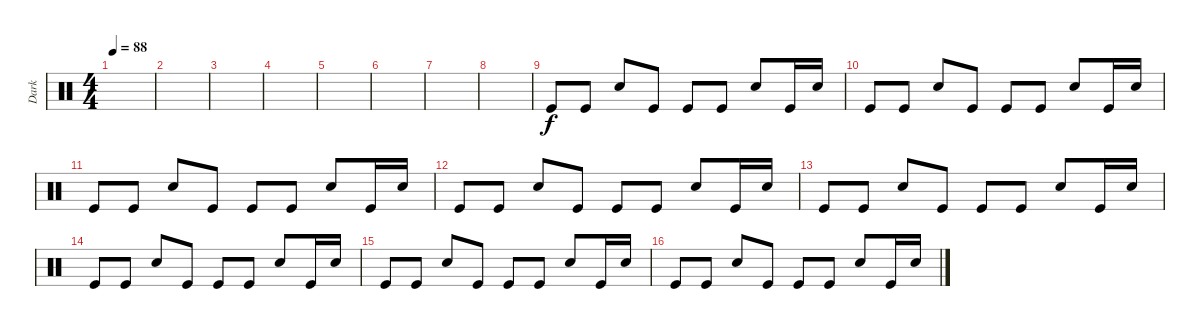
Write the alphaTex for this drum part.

\track ("Dark " "Dark ") {instrument percussion}
\staff {score}
\articulation defaults
\ts (4 4)
\tempo 88
\clef neutral
\ks c
|
|
|
|
|
|
|
|
"Kick (hit)".8 "Kick (hit)".8 "Snare (hit) 2".8 "Kick (hit)".8 "Kick (hit)".8 "Kick (hit)".8 "Snare (hit) 2".8 "Kick (hit)".16 "Snare (hit) 2".16 |
"Kick (hit)".8 "Kick (hit)".8 "Snare (hit) 2".8 "Kick (hit)".8 "Kick (hit)".8 "Kick (hit)".8 "Snare (hit) 2".8 "Kick (hit)".16 "Snare (hit) 2".16 |
"Kick (hit)".8 "Kick (hit)".8 "Snare (hit) 2".8 "Kick (hit)".8 "Kick (hit)".8 "Kick (hit)".8 "Snare (hit) 2".8 "Kick (hit)".16 "Snare (hit) 2".16 |
"Kick (hit)".8 "Kick (hit)".8 "Snare (hit) 2".8 "Kick (hit)".8 "Kick (hit)".8 "Kick (hit)".8 "Snare (hit) 2".8 "Kick (hit)".16 "Snare (hit) 2".16 |
"Kick (hit)".8 "Kick (hit)".8 "Snare (hit) 2".8 "Kick (hit)".8 "Kick (hit)".8 "Kick (hit)".8 "Snare (hit) 2".8 "Kick (hit)".16 "Snare (hit) 2".16 |
"Kick (hit)".8 "Kick (hit)".8 "Snare (hit) 2".8 "Kick (hit)".8 "Kick (hit)".8 "Kick (hit)".8 "Snare (hit) 2".8 "Kick (hit)".16 "Snare (hit) 2".16 |
"Kick (hit)".8 "Kick (hit)".8 "Snare (hit) 2".8 "Kick (hit)".8 "Kick (hit)".8 "Kick (hit)".8 "Snare (hit) 2".8 "Kick (hit)".16 "Snare (hit) 2".16 |
"Kick (hit)".8 "Kick (hit)".8 "Snare (hit) 2".8 "Kick (hit)".8 "Kick (hit)".8 "Kick (hit)".8 "Snare (hit) 2".8 "Kick (hit)".16 "Snare (hit) 2".16
